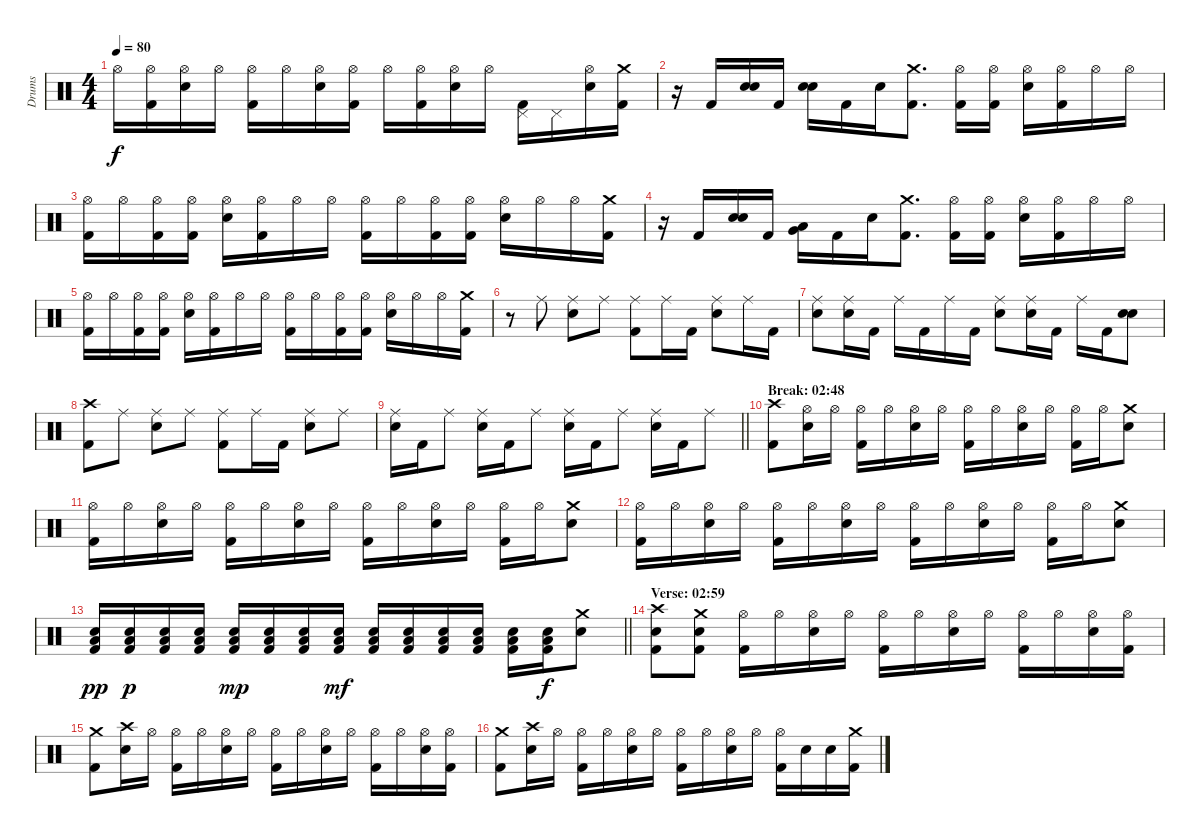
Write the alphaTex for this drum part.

\track ("Drums" "Drums") {instrument percussion}
\staff {score}
\articulation defaults
\ts (4 4)
\tempo 80
\clef neutral
\ks c "Hi-Hat (open)".16{dy f}
("Hi-Hat (open)" "Kick (hit) 2").16 ("Hi-Hat (open)" "Electric Snare (hit)").16 "Hi-Hat (open)".16 ("Hi-Hat (open)" "Kick (hit) 2").16 "Hi-Hat (open)".16 ("Hi-Hat (open)" "Electric Snare (hit)").16 ("Hi-Hat (open)" "Kick (hit) 2").16 "Hi-Hat (open)".16 ("Hi-Hat (open)" "Kick (hit) 2").16 ("Hi-Hat (open)" "Electric Snare (hit)").16 "Hi-Hat (open)".16 ("Pedal Hi-Hat (hit)" "Kick (hit) 2").16 "Pedal Hi-Hat (hit)".16 ("Hi-Hat (open)" "Electric Snare (hit)").16 ("Crash medium (hit)" "Kick (hit) 2").16 |
r.16 "Kick (hit) 2".16 ("Electric Snare (hit)" "Electric Snare (hit)").16{bd 120} "Kick (hit) 2".16 ("Electric Snare (hit)" "Electric Snare (hit)").16{bd 120} "Kick (hit) 2".16 "Electric Snare (hit)".16 ("Crash medium (hit)" "Kick (hit) 2").8{d} ("Hi-Hat (open)" "Kick (hit) 2").16 ("Hi-Hat (open)" "Kick (hit) 2").16 ("Hi-Hat (open)" "Electric Snare (hit)").16 ("Hi-Hat (open)" "Kick (hit) 2").16 "Hi-Hat (open)".16 "Hi-Hat (open)".16 |
("Hi-Hat (open)" "Kick (hit) 2").16 "Hi-Hat (open)".16 ("Hi-Hat (open)" "Kick (hit) 2").16 ("Hi-Hat (open)" "Kick (hit) 2").16 ("Hi-Hat (open)" "Electric Snare (hit)").16 ("Hi-Hat (open)" "Kick (hit) 2").16 "Hi-Hat (open)".16 "Hi-Hat (open)".16 ("Hi-Hat (open)" "Kick (hit) 2").16 "Hi-Hat (open)".16 ("Hi-Hat (open)" "Kick (hit) 2").16 ("Hi-Hat (open)" "Kick (hit) 2").16 ("Hi-Hat (open)" "Electric Snare (hit)").16 "Hi-Hat (open)".16 "Hi-Hat (open)".16 ("Crash medium (hit)" "Kick (hit) 2").16 |
r.16 "Kick (hit) 2".16 ("Electric Snare (hit)" "Electric Snare (hit)").16{bd 120} "Kick (hit) 2".16 ("Very Low Tom (hit)" "Low Floor Tom (hit)").16{bd 120} "Kick (hit) 2".16 "Electric Snare (hit)".16 ("Crash medium (hit)" "Kick (hit) 2").8{d} ("Hi-Hat (open)" "Kick (hit) 2").16 ("Hi-Hat (open)" "Kick (hit) 2").16 ("Hi-Hat (open)" "Electric Snare (hit)").16 ("Hi-Hat (open)" "Kick (hit) 2").16 "Hi-Hat (open)".16 "Hi-Hat (open)".16 |
("Hi-Hat (open)" "Kick (hit) 2").16 "Hi-Hat (open)".16 ("Hi-Hat (open)" "Kick (hit) 2").16 ("Hi-Hat (open)" "Kick (hit) 2").16 ("Hi-Hat (open)" "Electric Snare (hit)").16 ("Hi-Hat (open)" "Kick (hit) 2").16 "Hi-Hat (open)".16 "Hi-Hat (open)".16 ("Hi-Hat (open)" "Kick (hit) 2").16 "Hi-Hat (open)".16 ("Hi-Hat (open)" "Kick (hit) 2").16 ("Hi-Hat (open)" "Kick (hit) 2").16 ("Hi-Hat (open)" "Electric Snare (hit)").16 "Hi-Hat (open)".16 "Hi-Hat (open)".16 ("Crash medium (hit)" "Kick (hit) 2").16 |
r.8 "Ride (middle)".8 ("Ride (middle)" "Electric Snare (hit)").8 "Ride (middle)".8 ("Ride (middle)" "Kick (hit) 2").8 "Ride (middle)".16 "Kick (hit) 2".16 ("Ride (middle)" "Electric Snare (hit)").8 "Ride (middle)".16 "Kick (hit) 2".16 |
("Ride (middle)" "Electric Snare (hit)").8 ("Ride (middle)" "Electric Snare (hit)").16 "Kick (hit) 2".16 "Ride (middle)".16 "Kick (hit) 2".16 "Ride (middle)".16 "Kick (hit) 2".16 ("Ride (middle)" "Electric Snare (hit)").8 ("Ride (middle)" "Electric Snare (hit)").16 "Kick (hit) 2".16 "Ride (middle)".16 "Kick (hit) 2".16 ("Electric Snare (hit)" "Electric Snare (hit)").8{bd 120} |
("Crash high (hit)" "Kick (hit) 2").8 "Ride (middle)".8 ("Ride (middle)" "Electric Snare (hit)").8 "Ride (middle)".8 ("Ride (middle)" "Kick (hit) 2").8 "Ride (middle)".16 "Kick (hit) 2".16 ("Ride (middle)" "Electric Snare (hit)").8 "Ride (middle)".8 |
\barLineRight lightlight
("Ride (middle)" "Electric Snare (hit)").16 "Kick (hit) 2".16 "Ride (middle)".8 ("Ride (middle)" "Electric Snare (hit)").16 "Kick (hit) 2".16 "Ride (middle)".8 ("Ride (middle)" "Electric Snare (hit)").16 "Kick (hit) 2".16 "Ride (middle)".8 ("Ride (middle)" "Electric Snare (hit)").16 "Kick (hit) 2".16 "Ride (middle)".8 |
\section ("" "Break: 02:48")
("Crash high (hit)" "Kick (hit) 2").8 ("Hi-Hat (open)" "Electric Snare (hit)").16 "Hi-Hat (open)".16 ("Hi-Hat (open)" "Kick (hit) 2").16 "Hi-Hat (open)".16 ("Hi-Hat (open)" "Electric Snare (hit)").16 "Hi-Hat (open)".16 ("Hi-Hat (open)" "Kick (hit) 2").16 "Hi-Hat (open)".16 ("Hi-Hat (open)" "Electric Snare (hit)").16 "Hi-Hat (open)".16 ("Hi-Hat (open)" "Kick (hit) 2").16 "Hi-Hat (open)".16 ("Crash medium (hit)" "Electric Snare (hit)").8 |
("Hi-Hat (open)" "Kick (hit) 2").16 "Hi-Hat (open)".16 ("Hi-Hat (open)" "Electric Snare (hit)").16 "Hi-Hat (open)".16 ("Hi-Hat (open)" "Kick (hit) 2").16 "Hi-Hat (open)".16 ("Hi-Hat (open)" "Electric Snare (hit)").16 "Hi-Hat (open)".16 ("Hi-Hat (open)" "Kick (hit) 2").16 "Hi-Hat (open)".16 ("Hi-Hat (open)" "Electric Snare (hit)").16 "Hi-Hat (open)".16 ("Hi-Hat (open)" "Kick (hit) 2").16 "Hi-Hat (open)".16 ("Crash medium (hit)" "Electric Snare (hit)").8 |
("Hi-Hat (open)" "Kick (hit) 2").16 "Hi-Hat (open)".16 ("Hi-Hat (open)" "Electric Snare (hit)").16 "Hi-Hat (open)".16 ("Hi-Hat (open)" "Kick (hit) 2").16 "Hi-Hat (open)".16 ("Hi-Hat (open)" "Electric Snare (hit)").16 "Hi-Hat (open)".16 ("Hi-Hat (open)" "Kick (hit) 2").16 "Hi-Hat (open)".16 ("Hi-Hat (open)" "Electric Snare (hit)").16 "Hi-Hat (open)".16 ("Hi-Hat (open)" "Kick (hit) 2").16 "Hi-Hat (open)".16 ("Crash medium (hit)" "Electric Snare (hit)").8 |
\barLineRight lightlight
("Low Tom (hit)" "Electric Snare (hit)" "Kick (hit) 2").16{dy pp} ("Low Tom (hit)" "Electric Snare (hit)" "Kick (hit) 2").16{dy p} ("Low Tom (hit)" "Electric Snare (hit)" "Kick (hit) 2").16 ("Low Tom (hit)" "Electric Snare (hit)" "Kick (hit) 2").16 ("Low Tom (hit)" "Electric Snare (hit)" "Kick (hit) 2").16{dy mp} ("Low Tom (hit)" "Electric Snare (hit)" "Kick (hit) 2").16 ("Low Tom (hit)" "Electric Snare (hit)" "Kick (hit) 2").16 ("Low Tom (hit)" "Electric Snare (hit)" "Kick (hit) 2").16{dy mf} ("Low Tom (hit)" "Electric Snare (hit)" "Kick (hit) 2").16 ("Low Tom (hit)" "Electric Snare (hit)" "Kick (hit) 2").16 ("Low Tom (hit)" "Electric Snare (hit)" "Kick (hit) 2").16 ("Low Tom (hit)" "Electric Snare (hit)" "Kick (hit) 2").16 ("Low Tom (hit)" "Electric Snare (hit)" "Kick (hit) 2").16 ("Low Tom (hit)" "Electric Snare (hit)" "Kick (hit) 2").16{dy f} ("Crash medium (hit)" "Electric Snare (hit)").8 |
\section ("" "Verse: 02:59")
("Crash high (hit)" "Electric Snare (hit)" "Kick (hit) 2").8 ("Crash medium (hit)" "Electric Snare (hit)" "Kick (hit) 2").8 ("Hi-Hat (open)" "Kick (hit) 2").16 "Hi-Hat (open)".16 ("Hi-Hat (open)" "Electric Snare (hit)").16 "Hi-Hat (open)".16 ("Hi-Hat (open)" "Kick (hit) 2").16 "Hi-Hat (open)".16 ("Hi-Hat (open)" "Electric Snare (hit)").16 "Hi-Hat (open)".16 ("Hi-Hat (open)" "Kick (hit) 2").16 "Hi-Hat (open)".16 ("Hi-Hat (open)" "Electric Snare (hit)").16 ("Hi-Hat (open)" "Kick (hit) 2").16 |
("Crash medium (hit)" "Kick (hit) 2").8 ("Crash high (hit)" "Electric Snare (hit)").16 "Hi-Hat (open)".16 ("Hi-Hat (open)" "Kick (hit) 2").16 "Hi-Hat (open)".16 ("Hi-Hat (open)" "Electric Snare (hit)").16 "Hi-Hat (open)".16 ("Hi-Hat (open)" "Kick (hit) 2").16 "Hi-Hat (open)".16 ("Hi-Hat (open)" "Electric Snare (hit)").16 "Hi-Hat (open)".16 ("Hi-Hat (open)" "Kick (hit) 2").16 "Hi-Hat (open)".16 ("Hi-Hat (open)" "Electric Snare (hit)").16 ("Hi-Hat (open)" "Kick (hit) 2").16 |
("Crash medium (hit)" "Kick (hit) 2").8 ("Crash high (hit)" "Electric Snare (hit)").16 "Hi-Hat (open)".16 ("Hi-Hat (open)" "Kick (hit) 2").16 "Hi-Hat (open)".16 ("Hi-Hat (open)" "Electric Snare (hit)").16 "Hi-Hat (open)".16 ("Hi-Hat (open)" "Kick (hit) 2").16 "Hi-Hat (open)".16 ("Hi-Hat (open)" "Electric Snare (hit)").16 "Hi-Hat (open)".16 ("Hi-Hat (open)" "Kick (hit) 2").16 "Electric Snare (hit)".16 "Electric Snare (hit)".16 ("Crash medium (hit)" "Kick (hit) 2").16
